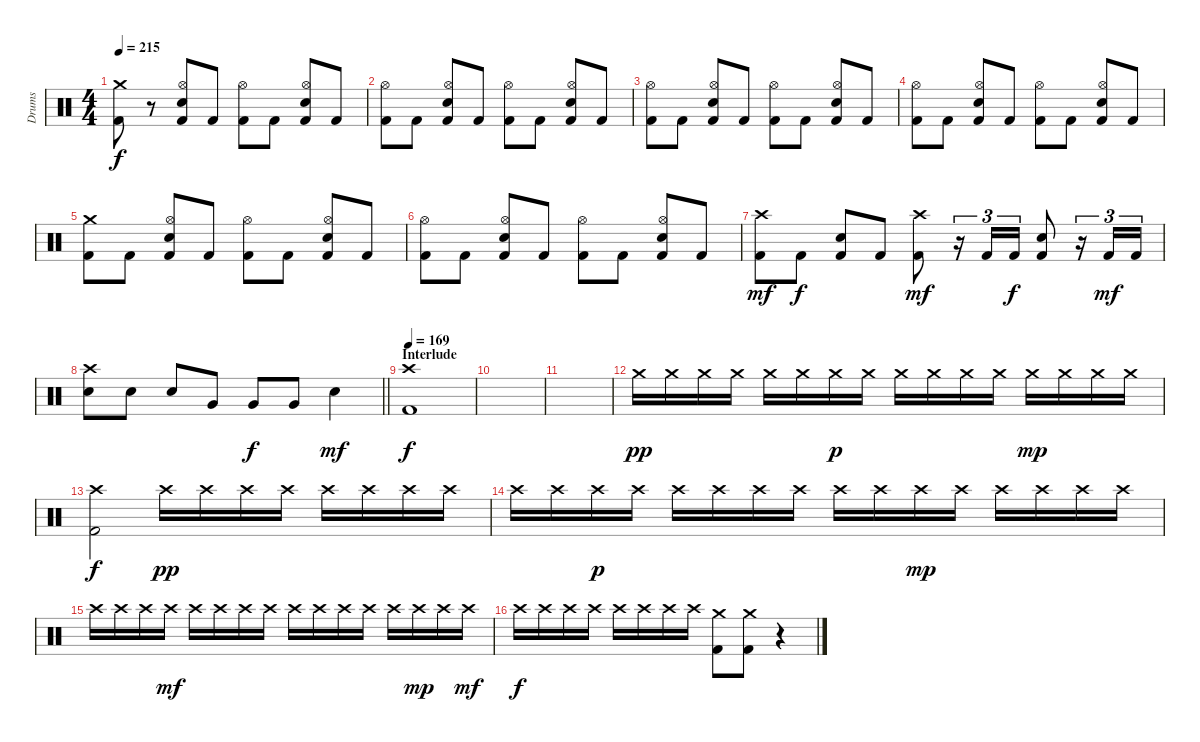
\track ("Drums" "Drums") {instrument percussion}
\staff {score}
\articulation defaults
\ts (4 4)
\tempo 215
\clef neutral
\ks c
("Crash medium (hit)" "Kick (hit) 2").8{dy f} r.8 ("Hi-Hat (open)" "Snare (hit) 2" "Kick (hit) 2").8 "Kick (hit) 2".8 ("Hi-Hat (open)" "Kick (hit) 2").8 "Kick (hit) 2".8 ("Hi-Hat (open)" "Snare (hit) 2" "Kick (hit) 2").8 "Kick (hit) 2".8 |
("Hi-Hat (open)" "Kick (hit) 2").8 "Kick (hit) 2".8 ("Hi-Hat (open)" "Snare (hit) 2" "Kick (hit) 2").8 "Kick (hit) 2".8 ("Hi-Hat (open)" "Kick (hit) 2").8 "Kick (hit) 2".8 ("Hi-Hat (open)" "Snare (hit) 2" "Kick (hit) 2").8 "Kick (hit) 2".8 |
("Hi-Hat (open)" "Kick (hit) 2").8 "Kick (hit) 2".8 ("Hi-Hat (open)" "Snare (hit) 2" "Kick (hit) 2").8 "Kick (hit) 2".8 ("Hi-Hat (open)" "Kick (hit) 2").8 "Kick (hit) 2".8 ("Hi-Hat (open)" "Snare (hit) 2" "Kick (hit) 2").8 "Kick (hit) 2".8 |
("Hi-Hat (open)" "Kick (hit) 2").8 "Kick (hit) 2".8 ("Hi-Hat (open)" "Snare (hit) 2" "Kick (hit) 2").8 "Kick (hit) 2".8 ("Hi-Hat (open)" "Kick (hit) 2").8 "Kick (hit) 2".8 ("Hi-Hat (open)" "Snare (hit) 2" "Kick (hit) 2").8 "Kick (hit) 2".8 |
("Crash medium (hit)" "Kick (hit) 2").8 "Kick (hit) 2".8 ("Hi-Hat (open)" "Snare (hit) 2" "Kick (hit) 2").8 "Kick (hit) 2".8 ("Hi-Hat (open)" "Kick (hit) 2").8 "Kick (hit) 2".8 ("Hi-Hat (open)" "Snare (hit) 2" "Kick (hit) 2").8 "Kick (hit) 2".8 |
("Hi-Hat (open)" "Kick (hit) 2").8 "Kick (hit) 2".8 ("Hi-Hat (open)" "Snare (hit) 2" "Kick (hit) 2").8 "Kick (hit) 2".8 ("Hi-Hat (open)" "Kick (hit) 2").8 "Kick (hit) 2".8 ("Hi-Hat (open)" "Snare (hit) 2" "Kick (hit) 2").8 "Kick (hit) 2".8 |
("Crash high (hit)" "Kick (hit) 2").8{dy mf} "Kick (hit) 2".8{dy f} ("Snare (hit) 2" "Kick (hit) 2").8 "Kick (hit) 2".8 ("Crash high (hit)" "Kick (hit) 2").8{dy mf} r.16{tu (3 2)} "Kick (hit) 2".16{tu (3 2)} "Kick (hit) 2".16{tu (3 2) dy f} ("Snare (hit) 2" "Kick (hit) 2").8 r.16{tu (3 2)} "Kick (hit) 2".16{tu (3 2) dy mf} "Kick (hit) 2".16{tu (3 2)} |
\barLineRight lightlight
("Crash high (hit)" "Snare (hit) 2").8 "Snare (hit) 2".8 "Snare (hit) 2".8 "Very Low Tom (hit)".8 "Very Low Tom (hit)".8{dy f} "Very Low Tom (hit)".8 "Snare (hit) 2".4{dy mf} |
\section ("" "Interlude")
\tempo 169
("Crash high (hit)" "Kick (hit) 2").1{dy f} |
|
|
"Crash medium (hit)".16{dy pp} "Crash medium (hit)".16 "Crash medium (hit)".16 "Crash medium (hit)".16 "Crash medium (hit)".16 "Crash medium (hit)".16 "Crash medium (hit)".16{dy p} "Crash medium (hit)".16 "Crash medium (hit)".16 "Crash medium (hit)".16 "Crash medium (hit)".16 "Crash medium (hit)".16 "Crash medium (hit)".16{dy mp} "Crash medium (hit)".16 "Crash medium (hit)".16 "Crash medium (hit)".16 |
("Crash high (hit)" "Kick (hit) 2").2{dy f} "Crash high (hit)".16{dy pp} "Crash high (hit)".16 "Crash high (hit)".16 "Crash high (hit)".16 "Crash high (hit)".16 "Crash high (hit)".16 "Crash high (hit)".16 "Crash high (hit)".16 |
"Crash high (hit)".16 "Crash high (hit)".16 "Crash high (hit)".16{dy p} "Crash high (hit)".16 "Crash high (hit)".16 "Crash high (hit)".16 "Crash high (hit)".16 "Crash high (hit)".16 "Crash high (hit)".16 "Crash high (hit)".16 "Crash high (hit)".16{dy mp} "Crash high (hit)".16 "Crash high (hit)".16 "Crash high (hit)".16 "Crash high (hit)".16 "Crash high (hit)".16 |
"Crash high (hit)".16 "Crash high (hit)".16 "Crash high (hit)".16 "Crash high (hit)".16{dy mf} "Crash high (hit)".16 "Crash high (hit)".16 "Crash high (hit)".16 "Crash high (hit)".16 "Crash high (hit)".16 "Crash high (hit)".16 "Crash high (hit)".16 "Crash high (hit)".16 "Crash high (hit)".16 "Crash high (hit)".16{dy mp} "Crash high (hit)".16 "Crash high (hit)".16{dy mf} |
"Crash high (hit)".16{dy f} "Crash high (hit)".16 "Crash high (hit)".16 "Crash high (hit)".16 "Crash high (hit)".16 "Crash high (hit)".16 "Crash high (hit)".16 "Crash high (hit)".16 ("Crash medium (hit)" "Kick (hit) 2").8 ("Crash medium (hit)" "Kick (hit) 2").8 r.4
